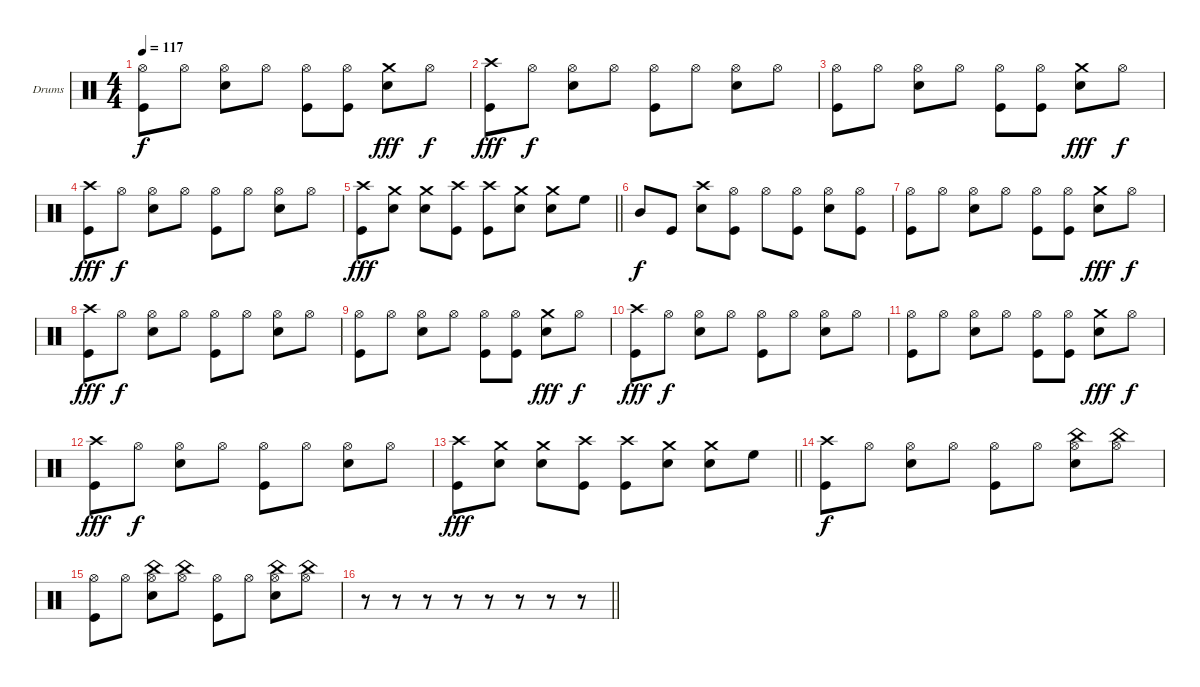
\bracketExtendMode groupsimilarinstruments
\firstSystemTrackNameOrientation horizontal
\otherSystemsTrackNameOrientation horizontal
\track ("Drumkit" "Drums") {instrument percussion}
\staff {score}
\articulation defaults
\ts (4 4)
\tempo 117
\clef neutral
\ks c
("Hi-Hat (open)" "Kick (hit)").8{dy f} "Hi-Hat (open)".8 ("Hi-Hat (open)" "Snare (hit) 2").8 "Hi-Hat (open)".8 ("Hi-Hat (open)" "Kick (hit)").8 ("Hi-Hat (open)" "Kick (hit)").8 ("Crash medium (hit)" "Snare (hit) 2").8{dy fff} "Hi-Hat (open)".8{dy f} |
("Crash high (hit)" "Kick (hit)").8{dy fff} "Hi-Hat (open)".8{dy f} ("Hi-Hat (open)" "Snare (hit) 2").8 "Hi-Hat (open)".8 ("Hi-Hat (open)" "Kick (hit)").8 "Hi-Hat (open)".8 ("Hi-Hat (open)" "Snare (hit) 2").8 "Hi-Hat (open)".8 |
("Hi-Hat (open)" "Kick (hit)").8 "Hi-Hat (open)".8 ("Hi-Hat (open)" "Snare (hit) 2").8 "Hi-Hat (open)".8 ("Hi-Hat (open)" "Kick (hit)").8 ("Hi-Hat (open)" "Kick (hit)").8 ("Crash medium (hit)" "Snare (hit) 2").8{dy fff} "Hi-Hat (open)".8{dy f} |
("Crash high (hit)" "Kick (hit)").8{dy fff} "Hi-Hat (open)".8{dy f} ("Hi-Hat (open)" "Snare (hit) 2").8 "Hi-Hat (open)".8 ("Hi-Hat (open)" "Kick (hit)").8 "Hi-Hat (open)".8 ("Hi-Hat (open)" "Snare (hit) 2").8 "Hi-Hat (open)".8 |
\barLineRight lightlight
("Crash high (hit)" "Kick (hit)").8{dy fff} ("Crash medium (hit)" "Snare (hit) 2").8 ("Crash medium (hit)" "Snare (hit) 2").8 ("Crash high (hit)" "Kick (hit)").8 ("Crash high (hit)" "Kick (hit)").8 ("Crash medium (hit)" "Snare (hit) 2").8 ("Crash medium (hit)" "Snare (hit) 2").8 "High Floor Tom (hit)".8 |
"Mid Tom (hit)".8{dy f} "Kick (hit)".8 ("Crash high (hit)" "Snare (hit) 2").8 ("Hi-Hat (open)" "Kick (hit)").8 "Hi-Hat (open)".8 ("Hi-Hat (open)" "Kick (hit)").8 ("Hi-Hat (open)" "Snare (hit) 2").8 ("Hi-Hat (open)" "Kick (hit)").8 |
("Hi-Hat (open)" "Kick (hit)").8 "Hi-Hat (open)".8 ("Hi-Hat (open)" "Snare (hit) 2").8 "Hi-Hat (open)".8 ("Hi-Hat (open)" "Kick (hit)").8 ("Hi-Hat (open)" "Kick (hit)").8 ("Crash medium (hit)" "Snare (hit) 2").8{dy fff} "Hi-Hat (open)".8{dy f} |
("Crash high (hit)" "Kick (hit)").8{dy fff} "Hi-Hat (open)".8{dy f} ("Hi-Hat (open)" "Snare (hit) 2").8 "Hi-Hat (open)".8 ("Hi-Hat (open)" "Kick (hit)").8 "Hi-Hat (open)".8 ("Hi-Hat (open)" "Snare (hit) 2").8 "Hi-Hat (open)".8 |
("Hi-Hat (open)" "Kick (hit)").8 "Hi-Hat (open)".8 ("Hi-Hat (open)" "Snare (hit) 2").8 "Hi-Hat (open)".8 ("Hi-Hat (open)" "Kick (hit)").8 ("Hi-Hat (open)" "Kick (hit)").8 ("Crash medium (hit)" "Snare (hit) 2").8{dy fff} "Hi-Hat (open)".8{dy f} |
("Crash high (hit)" "Kick (hit)").8{dy fff} "Hi-Hat (open)".8{dy f} ("Hi-Hat (open)" "Snare (hit) 2").8 "Hi-Hat (open)".8 ("Hi-Hat (open)" "Kick (hit)").8 "Hi-Hat (open)".8 ("Hi-Hat (open)" "Snare (hit) 2").8 "Hi-Hat (open)".8 |
("Hi-Hat (open)" "Kick (hit)").8 "Hi-Hat (open)".8 ("Hi-Hat (open)" "Snare (hit) 2").8 "Hi-Hat (open)".8 ("Hi-Hat (open)" "Kick (hit)").8 ("Hi-Hat (open)" "Kick (hit)").8 ("Crash medium (hit)" "Snare (hit) 2").8{dy fff} "Hi-Hat (open)".8{dy f} |
("Crash high (hit)" "Kick (hit)").8{dy fff} "Hi-Hat (open)".8{dy f} ("Hi-Hat (open)" "Snare (hit) 2").8 "Hi-Hat (open)".8 ("Hi-Hat (open)" "Kick (hit)").8 "Hi-Hat (open)".8 ("Hi-Hat (open)" "Snare (hit) 2").8 "Hi-Hat (open)".8 |
\barLineRight lightlight
("Crash high (hit)" "Kick (hit)").8{dy fff} ("Crash medium (hit)" "Snare (hit) 2").8 ("Crash medium (hit)" "Snare (hit) 2").8 ("Crash high (hit)" "Kick (hit)").8 ("Crash high (hit)" "Kick (hit)").8 ("Crash medium (hit)" "Snare (hit) 2").8 ("Crash medium (hit)" "Snare (hit) 2").8 "High Floor Tom (hit)".8 |
("Crash high (hit)" "Kick (hit)").8{dy f} "Hi-Hat (open)".8 ("Hi-Hat (open)" "Snare (hit) 2").8 "Hi-Hat (open)".8 ("Hi-Hat (open)" "Kick (hit)").8 "Hi-Hat (open)".8 ("Hi-Hat (open)" "Snare (hit) 2" "China (hit)").8 ("Hi-Hat (open)" "China (hit)").8 |
("Hi-Hat (open)" "Kick (hit)").8 "Hi-Hat (open)".8 ("Hi-Hat (open)" "Snare (hit) 2" "China (hit)").8 ("Hi-Hat (open)" "China (hit)").8 ("Hi-Hat (open)" "Kick (hit)").8 "Hi-Hat (open)".8 ("Hi-Hat (open)" "Snare (hit) 2" "China (hit)").8 ("Hi-Hat (open)" "China (hit)").8 |
\barLineRight lightlight
r.8 r.8 r.8 r.8 r.8 r.8 r.8 r.8
